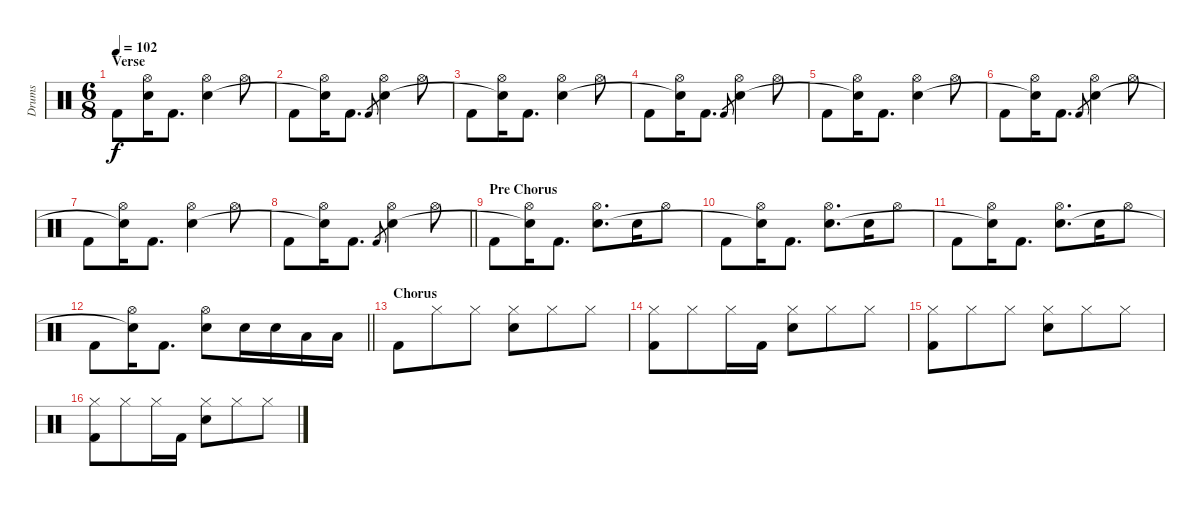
\track ("Drums" "Drums") {instrument percussion}
\staff {score}
\articulation defaults
\ts (6 8)
\section ("" "Verse")
\tempo 102
\clef neutral
\ks aminor "Kick (hit) 2".8{dy f}
("Hi-Hat (open)" "Snare (hit)").16 "Kick (hit) 2".8{d} ("Hi-Hat (open)" "Snare (hit) 2").4 "Hi-Hat (open)".8 |
"Kick (hit) 2".8 ("Hi-Hat (open)" "Snare (hit)"{t}).16 "Kick (hit) 2".8{d} "Kick (hit) 2".8{gr} ("Hi-Hat (open)" "Snare (hit) 2").4 "Hi-Hat (open)".8 |
"Kick (hit) 2".8 ("Hi-Hat (open)" "Snare (hit)"{t}).16 "Kick (hit) 2".8{d} ("Hi-Hat (open)" "Snare (hit) 2").4 "Hi-Hat (open)".8 |
"Kick (hit) 2".8 ("Hi-Hat (open)" "Snare (hit)"{t}).16 "Kick (hit) 2".8{d} "Kick (hit) 2".8{gr} ("Hi-Hat (open)" "Snare (hit) 2").4 "Hi-Hat (open)".8 |
"Kick (hit) 2".8 ("Hi-Hat (open)" "Snare (hit)"{t}).16 "Kick (hit) 2".8{d} ("Hi-Hat (open)" "Snare (hit) 2").4 "Hi-Hat (open)".8 |
"Kick (hit) 2".8 ("Hi-Hat (open)" "Snare (hit)"{t}).16 "Kick (hit) 2".8{d} "Kick (hit) 2".8{gr} ("Hi-Hat (open)" "Snare (hit) 2").4 "Hi-Hat (open)".8 |
"Kick (hit) 2".8 ("Hi-Hat (open)" "Snare (hit)"{t}).16 "Kick (hit) 2".8{d} ("Hi-Hat (open)" "Snare (hit) 2").4 "Hi-Hat (open)".8 |
\barLineRight lightlight "Kick (hit) 2".8
("Hi-Hat (open)" "Snare (hit)"{t}).16 "Kick (hit) 2".8{d} "Kick (hit) 2".8{gr} ("Hi-Hat (open)" "Snare (hit) 2").4 "Hi-Hat (open)".8 |
\section ("" "Pre Chorus")
"Kick (hit) 2".8 ("Hi-Hat (open)" "Snare (hit)"{t}).16 "Kick (hit) 2".8{d} ("Hi-Hat (open)" "Snare (hit) 2").8{d} "Snare (hit) 2".16 "Hi-Hat (open)".8 |
"Kick (hit) 2".8 ("Hi-Hat (open)" "Snare (hit)"{t}).16 "Kick (hit) 2".8{d} ("Hi-Hat (open)" "Snare (hit) 2").8{d} "Snare (hit) 2".16 "Hi-Hat (open)".8 |
"Kick (hit) 2".8 ("Hi-Hat (open)" "Snare (hit)"{t}).16 "Kick (hit) 2".8{d} ("Hi-Hat (open)" "Snare (hit) 2").8{d} "Snare (hit) 2".16 "Hi-Hat (open)".8 |
\barLineRight lightlight "Kick (hit) 2".8
("Hi-Hat (open)" "Snare (hit)"{t}).16 "Kick (hit) 2".8{d} ("Hi-Hat (open)" "Snare (hit) 2").8 "Snare (hit) 2".16 "Snare (hit) 2".16 "Low Tom (hit)".16 "Low Tom (hit)".16 |
\section ("" "Chorus")
"Kick (hit) 2".8 "Hi-Hat (closed)".8 "Hi-Hat (closed)".8 ("Hi-Hat (closed)" "Snare (hit) 2").8 "Hi-Hat (closed)".8 "Hi-Hat (closed)".8 |
("Hi-Hat (closed)" "Kick (hit) 2").8 "Hi-Hat (closed)".8 "Hi-Hat (closed)".16 "Kick (hit) 2".16 ("Hi-Hat (closed)" "Snare (hit) 2").8 "Hi-Hat (closed)".8 "Hi-Hat (closed)".8 |
("Hi-Hat (closed)" "Kick (hit) 2").8 "Hi-Hat (closed)".8 "Hi-Hat (closed)".8 ("Hi-Hat (closed)" "Snare (hit) 2").8 "Hi-Hat (closed)".8 "Hi-Hat (closed)".8 |
("Hi-Hat (closed)" "Kick (hit) 2").8 "Hi-Hat (closed)".8 "Hi-Hat (closed)".16 "Kick (hit) 2".16 ("Hi-Hat (closed)" "Snare (hit) 2").8 "Hi-Hat (closed)".8 "Hi-Hat (closed)".8
